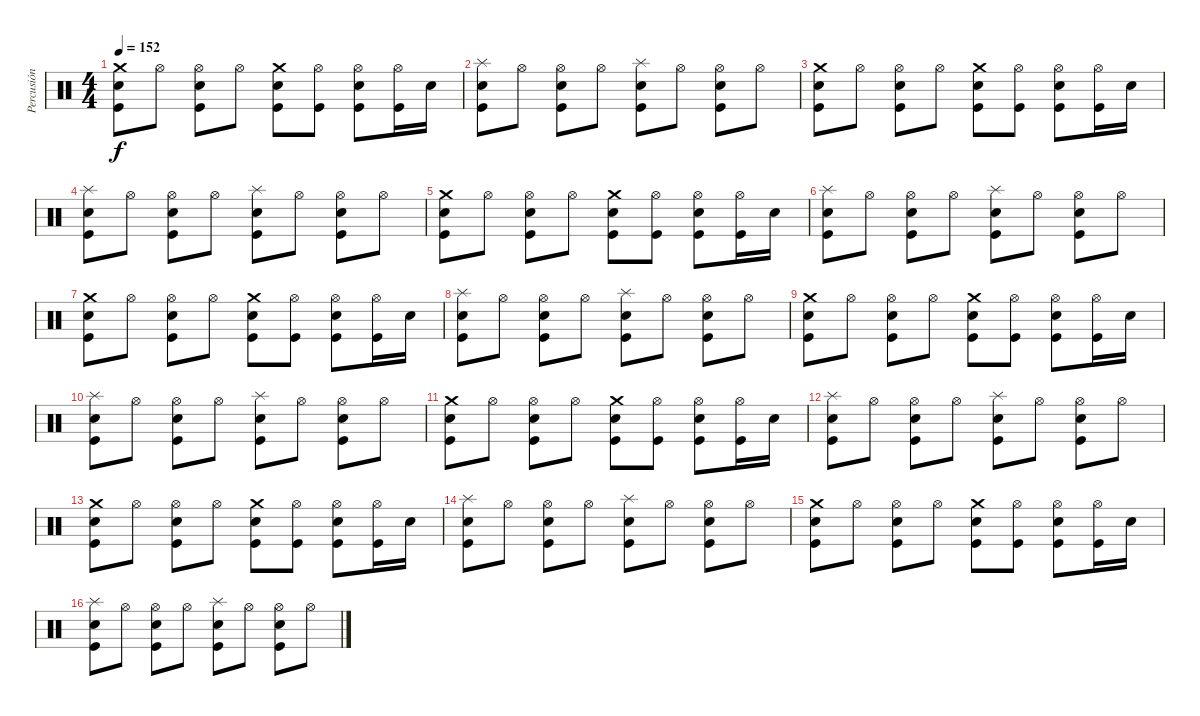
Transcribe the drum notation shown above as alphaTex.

\track ("Percusión" "Percusión") {instrument percussion}
\staff {score}
\articulation defaults
\ts (4 4)
\tempo 152
\clef neutral
\ks c
("Crash medium (hit)" "Electric Snare (hit)" "Kick (hit)").8{dy f} "Hi-Hat (open)".8 ("Hi-Hat (open)" "Electric Snare (hit)" "Kick (hit)").8 "Hi-Hat (open)".8 ("Crash medium (hit)" "Electric Snare (hit)" "Kick (hit)").8 ("Hi-Hat (open)" "Kick (hit)").8 ("Hi-Hat (open)" "Electric Snare (hit)" "Kick (hit)").8 ("Hi-Hat (open)" "Kick (hit)").16 "Electric Snare (hit)".16 |
("Splash (hit)" "Electric Snare (hit)" "Kick (hit)").8 "Hi-Hat (open)".8 ("Hi-Hat (open)" "Electric Snare (hit)" "Kick (hit)").8 "Hi-Hat (open)".8 ("Splash (hit)" "Electric Snare (hit)" "Kick (hit)").8 "Hi-Hat (open)".8 ("Hi-Hat (open)" "Electric Snare (hit)" "Kick (hit)").8 "Hi-Hat (open)".8 |
("Crash medium (hit)" "Electric Snare (hit)" "Kick (hit)").8 "Hi-Hat (open)".8 ("Hi-Hat (open)" "Electric Snare (hit)" "Kick (hit)").8 "Hi-Hat (open)".8 ("Crash medium (hit)" "Electric Snare (hit)" "Kick (hit)").8 ("Hi-Hat (open)" "Kick (hit)").8 ("Hi-Hat (open)" "Electric Snare (hit)" "Kick (hit)").8 ("Hi-Hat (open)" "Kick (hit)").16 "Electric Snare (hit)".16 |
("Splash (hit)" "Electric Snare (hit)" "Kick (hit)").8 "Hi-Hat (open)".8 ("Hi-Hat (open)" "Electric Snare (hit)" "Kick (hit)").8 "Hi-Hat (open)".8 ("Splash (hit)" "Electric Snare (hit)" "Kick (hit)").8 "Hi-Hat (open)".8 ("Hi-Hat (open)" "Electric Snare (hit)" "Kick (hit)").8 "Hi-Hat (open)".8 |
("Crash medium (hit)" "Electric Snare (hit)" "Kick (hit)").8 "Hi-Hat (open)".8 ("Hi-Hat (open)" "Electric Snare (hit)" "Kick (hit)").8 "Hi-Hat (open)".8 ("Crash medium (hit)" "Electric Snare (hit)" "Kick (hit)").8 ("Hi-Hat (open)" "Kick (hit)").8 ("Hi-Hat (open)" "Electric Snare (hit)" "Kick (hit)").8 ("Hi-Hat (open)" "Kick (hit)").16 "Electric Snare (hit)".16 |
("Splash (hit)" "Electric Snare (hit)" "Kick (hit)").8 "Hi-Hat (open)".8 ("Hi-Hat (open)" "Electric Snare (hit)" "Kick (hit)").8 "Hi-Hat (open)".8 ("Splash (hit)" "Electric Snare (hit)" "Kick (hit)").8 "Hi-Hat (open)".8 ("Hi-Hat (open)" "Electric Snare (hit)" "Kick (hit)").8 "Hi-Hat (open)".8 |
("Crash medium (hit)" "Electric Snare (hit)" "Kick (hit)").8 "Hi-Hat (open)".8 ("Hi-Hat (open)" "Electric Snare (hit)" "Kick (hit)").8 "Hi-Hat (open)".8 ("Crash medium (hit)" "Electric Snare (hit)" "Kick (hit)").8 ("Hi-Hat (open)" "Kick (hit)").8 ("Hi-Hat (open)" "Electric Snare (hit)" "Kick (hit)").8 ("Hi-Hat (open)" "Kick (hit)").16 "Electric Snare (hit)".16 |
("Splash (hit)" "Electric Snare (hit)" "Kick (hit)").8 "Hi-Hat (open)".8 ("Hi-Hat (open)" "Electric Snare (hit)" "Kick (hit)").8 "Hi-Hat (open)".8 ("Splash (hit)" "Electric Snare (hit)" "Kick (hit)").8 "Hi-Hat (open)".8 ("Hi-Hat (open)" "Electric Snare (hit)" "Kick (hit)").8 "Hi-Hat (open)".8 |
("Crash medium (hit)" "Electric Snare (hit)" "Kick (hit)").8 "Hi-Hat (open)".8 ("Hi-Hat (open)" "Electric Snare (hit)" "Kick (hit)").8 "Hi-Hat (open)".8 ("Crash medium (hit)" "Electric Snare (hit)" "Kick (hit)").8 ("Hi-Hat (open)" "Kick (hit)").8 ("Hi-Hat (open)" "Electric Snare (hit)" "Kick (hit)").8 ("Hi-Hat (open)" "Kick (hit)").16 "Electric Snare (hit)".16 |
("Splash (hit)" "Electric Snare (hit)" "Kick (hit)").8 "Hi-Hat (open)".8 ("Hi-Hat (open)" "Electric Snare (hit)" "Kick (hit)").8 "Hi-Hat (open)".8 ("Splash (hit)" "Electric Snare (hit)" "Kick (hit)").8 "Hi-Hat (open)".8 ("Hi-Hat (open)" "Electric Snare (hit)" "Kick (hit)").8 "Hi-Hat (open)".8 |
("Crash medium (hit)" "Electric Snare (hit)" "Kick (hit)").8 "Hi-Hat (open)".8 ("Hi-Hat (open)" "Electric Snare (hit)" "Kick (hit)").8 "Hi-Hat (open)".8 ("Crash medium (hit)" "Electric Snare (hit)" "Kick (hit)").8 ("Hi-Hat (open)" "Kick (hit)").8 ("Hi-Hat (open)" "Electric Snare (hit)" "Kick (hit)").8 ("Hi-Hat (open)" "Kick (hit)").16 "Electric Snare (hit)".16 |
("Splash (hit)" "Electric Snare (hit)" "Kick (hit)").8 "Hi-Hat (open)".8 ("Hi-Hat (open)" "Electric Snare (hit)" "Kick (hit)").8 "Hi-Hat (open)".8 ("Splash (hit)" "Electric Snare (hit)" "Kick (hit)").8 "Hi-Hat (open)".8 ("Hi-Hat (open)" "Electric Snare (hit)" "Kick (hit)").8 "Hi-Hat (open)".8 |
("Crash medium (hit)" "Electric Snare (hit)" "Kick (hit)").8 "Hi-Hat (open)".8 ("Hi-Hat (open)" "Electric Snare (hit)" "Kick (hit)").8 "Hi-Hat (open)".8 ("Crash medium (hit)" "Electric Snare (hit)" "Kick (hit)").8 ("Hi-Hat (open)" "Kick (hit)").8 ("Hi-Hat (open)" "Electric Snare (hit)" "Kick (hit)").8 ("Hi-Hat (open)" "Kick (hit)").16 "Electric Snare (hit)".16 |
("Splash (hit)" "Electric Snare (hit)" "Kick (hit)").8 "Hi-Hat (open)".8 ("Hi-Hat (open)" "Electric Snare (hit)" "Kick (hit)").8 "Hi-Hat (open)".8 ("Splash (hit)" "Electric Snare (hit)" "Kick (hit)").8 "Hi-Hat (open)".8 ("Hi-Hat (open)" "Electric Snare (hit)" "Kick (hit)").8 "Hi-Hat (open)".8 |
("Crash medium (hit)" "Electric Snare (hit)" "Kick (hit)").8 "Hi-Hat (open)".8 ("Hi-Hat (open)" "Electric Snare (hit)" "Kick (hit)").8 "Hi-Hat (open)".8 ("Crash medium (hit)" "Electric Snare (hit)" "Kick (hit)").8 ("Hi-Hat (open)" "Kick (hit)").8 ("Hi-Hat (open)" "Electric Snare (hit)" "Kick (hit)").8 ("Hi-Hat (open)" "Kick (hit)").16 "Electric Snare (hit)".16 |
("Splash (hit)" "Electric Snare (hit)" "Kick (hit)").8 "Hi-Hat (open)".8 ("Hi-Hat (open)" "Electric Snare (hit)" "Kick (hit)").8 "Hi-Hat (open)".8 ("Splash (hit)" "Electric Snare (hit)" "Kick (hit)").8 "Hi-Hat (open)".8 ("Hi-Hat (open)" "Electric Snare (hit)" "Kick (hit)").8 "Hi-Hat (open)".8
